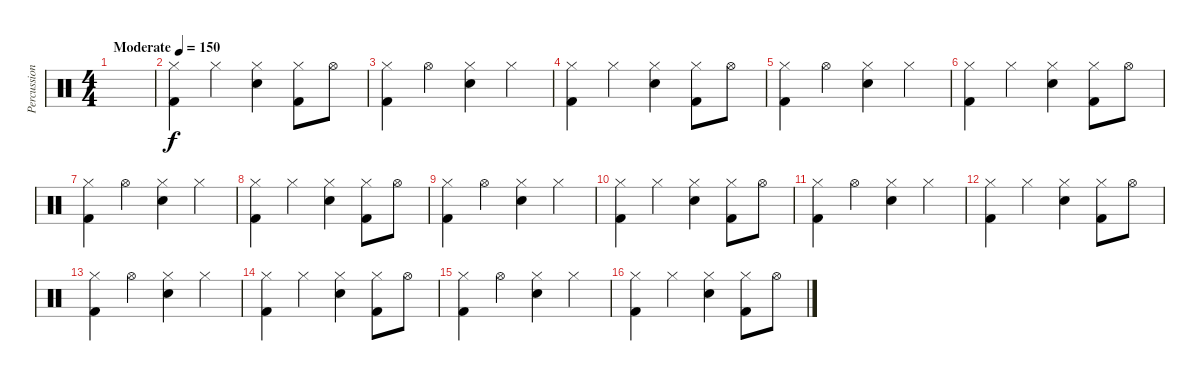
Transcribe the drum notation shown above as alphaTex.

\track ("Percussion" "Percussion") {instrument percussion}
\staff {score}
\articulation defaults
\ts (4 4)
\tempo (150 "Moderate")
\clef neutral
\ks c
|
("Hi-Hat (closed)" "Kick (hit) 2").4 "Hi-Hat (closed)".4 ("Hi-Hat (closed)" "Snare (hit) 2").4 ("Hi-Hat (closed)" "Kick (hit) 2").8 "Hi-Hat (open)".8 |
("Hi-Hat (closed)" "Kick (hit) 2").4 "Hi-Hat (open)".4 ("Hi-Hat (closed)" "Snare (hit) 2").4 "Hi-Hat (closed)".4 |
("Hi-Hat (closed)" "Kick (hit) 2").4 "Hi-Hat (closed)".4 ("Hi-Hat (closed)" "Snare (hit) 2").4 ("Hi-Hat (closed)" "Kick (hit) 2").8 "Hi-Hat (open)".8 |
("Hi-Hat (closed)" "Kick (hit) 2").4 "Hi-Hat (open)".4 ("Hi-Hat (closed)" "Snare (hit) 2").4 "Hi-Hat (closed)".4 |
("Hi-Hat (closed)" "Kick (hit) 2").4 "Hi-Hat (closed)".4 ("Hi-Hat (closed)" "Snare (hit) 2").4 ("Hi-Hat (closed)" "Kick (hit) 2").8 "Hi-Hat (open)".8 |
("Hi-Hat (closed)" "Kick (hit) 2").4 "Hi-Hat (open)".4 ("Hi-Hat (closed)" "Snare (hit) 2").4 "Hi-Hat (closed)".4 |
("Hi-Hat (closed)" "Kick (hit) 2").4 "Hi-Hat (closed)".4 ("Hi-Hat (closed)" "Snare (hit) 2").4 ("Hi-Hat (closed)" "Kick (hit) 2").8 "Hi-Hat (open)".8 |
("Hi-Hat (closed)" "Kick (hit) 2").4 "Hi-Hat (open)".4 ("Hi-Hat (closed)" "Snare (hit) 2").4 "Hi-Hat (closed)".4 |
("Hi-Hat (closed)" "Kick (hit) 2").4 "Hi-Hat (closed)".4 ("Hi-Hat (closed)" "Snare (hit) 2").4 ("Hi-Hat (closed)" "Kick (hit) 2").8 "Hi-Hat (open)".8 |
("Hi-Hat (closed)" "Kick (hit) 2").4 "Hi-Hat (open)".4 ("Hi-Hat (closed)" "Snare (hit) 2").4 "Hi-Hat (closed)".4 |
("Hi-Hat (closed)" "Kick (hit) 2").4 "Hi-Hat (closed)".4 ("Hi-Hat (closed)" "Snare (hit) 2").4 ("Hi-Hat (closed)" "Kick (hit) 2").8 "Hi-Hat (open)".8 |
("Hi-Hat (closed)" "Kick (hit) 2").4 "Hi-Hat (open)".4 ("Hi-Hat (closed)" "Snare (hit) 2").4 "Hi-Hat (closed)".4 |
("Hi-Hat (closed)" "Kick (hit) 2").4 "Hi-Hat (closed)".4 ("Hi-Hat (closed)" "Snare (hit) 2").4 ("Hi-Hat (closed)" "Kick (hit) 2").8 "Hi-Hat (open)".8 |
("Hi-Hat (closed)" "Kick (hit) 2").4 "Hi-Hat (open)".4 ("Hi-Hat (closed)" "Snare (hit) 2").4 "Hi-Hat (closed)".4 |
("Hi-Hat (closed)" "Kick (hit) 2").4 "Hi-Hat (closed)".4 ("Hi-Hat (closed)" "Snare (hit) 2").4 ("Hi-Hat (closed)" "Kick (hit) 2").8 "Hi-Hat (open)".8
